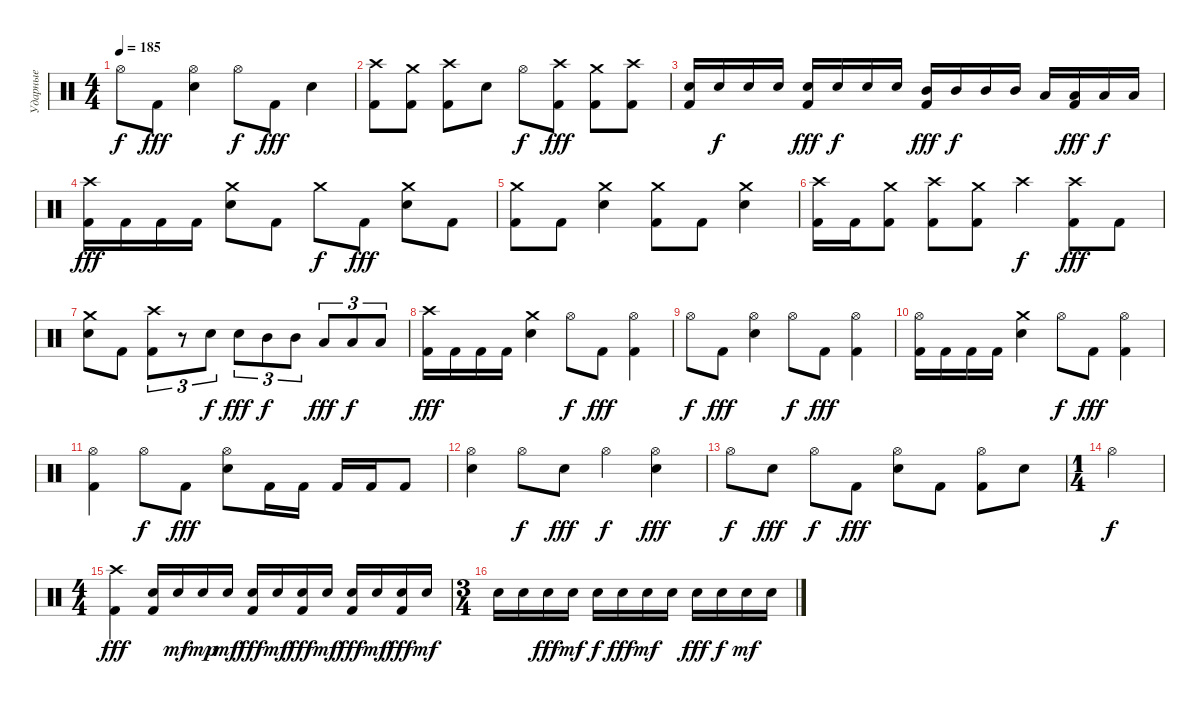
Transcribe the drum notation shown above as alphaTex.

\track ("Ударные" "Ударные") {instrument percussion}
\staff {score}
\articulation defaults
\ts (4 4)
\tempo 185
\clef neutral
\ks c "Hi-Hat (open)".8{dy f} "Kick (hit) 2".8{dy fff}
("Hi-Hat (open)" "Electric Snare (hit)").4 "Hi-Hat (open)".8{dy f} "Kick (hit) 2".8{dy fff} "Electric Snare (hit)".4 |
("Crash high (hit)" "Kick (hit) 2").8 ("Crash medium (hit)" "Kick (hit) 2").8 ("Crash high (hit)" "Kick (hit) 2").8 "Electric Snare (hit)".8 "Hi-Hat (open)".8{dy f} ("Crash high (hit)" "Kick (hit) 2").8{dy fff} ("Crash medium (hit)" "Kick (hit) 2").8 ("Crash high (hit)" "Kick (hit) 2").8 |
("Electric Snare (hit)" "Kick (hit) 2").16 "Electric Snare (hit)".16{dy f} "Electric Snare (hit)".16 "Electric Snare (hit)".16 ("Electric Snare (hit)" "Kick (hit) 2").16{dy fff} "Electric Snare (hit)".16{dy f} "Electric Snare (hit)".16 "Electric Snare (hit)".16 ("Mid Tom (hit)" "Kick (hit) 2").16{dy fff} "Mid Tom (hit)".16{dy f} "Mid Tom (hit)".16 "Mid Tom (hit)".16 "Low Floor Tom (hit)".16 ("Low Floor Tom (hit)" "Kick (hit) 2").16{dy fff} "Low Floor Tom (hit)".16{dy f} "Low Floor Tom (hit)".16 |
("Crash high (hit)" "Kick (hit) 2").16{dy fff} "Kick (hit) 2".16 "Kick (hit) 2".16 "Kick (hit) 2".16 ("Crash medium (hit)" "Electric Snare (hit)").8 "Kick (hit) 2".8 "Crash medium (hit)".8{dy f} "Kick (hit) 2".8{dy fff} ("Crash medium (hit)" "Electric Snare (hit)").8 "Kick (hit) 2".8 |
("Crash medium (hit)" "Kick (hit) 2").8 "Kick (hit) 2".8 ("Crash medium (hit)" "Electric Snare (hit)").4 ("Crash medium (hit)" "Kick (hit) 2").8 "Kick (hit) 2".8 ("Crash medium (hit)" "Electric Snare (hit)").4 |
("Crash high (hit)" "Kick (hit) 2").16 "Kick (hit) 2".16 ("Crash medium (hit)" "Kick (hit) 2").8 ("Crash high (hit)" "Kick (hit) 2").8 ("Crash medium (hit)" "Kick (hit) 2").8 "Crash high (hit)".4{dy f} ("Crash high (hit)" "Kick (hit) 2").8{dy fff} "Kick (hit) 2".8 |
("Crash medium (hit)" "Electric Snare (hit)").8 "Kick (hit) 2".8 ("Crash high (hit)" "Kick (hit) 2").8{tu (3 2)} r.8{tu (3 2)} "Electric Snare (hit)".8{tu (3 2) dy f} "Electric Snare (hit)".8{tu (3 2) dy fff} "Mid Tom (hit)".8{tu (3 2) dy f} "Mid Tom (hit)".8{tu (3 2)} "Low Tom (hit)".8{tu (3 2) dy fff} "Low Tom (hit)".8{tu (3 2) dy f} "Low Floor Tom (hit)".8{tu (3 2)} |
("Crash high (hit)" "Kick (hit) 2").16{dy fff} "Kick (hit) 2".16 "Kick (hit) 2".16 "Kick (hit) 2".16 ("Crash medium (hit)" "Electric Snare (hit)").4 "Hi-Hat (open)".8{dy f} "Kick (hit) 2".8{dy fff} ("Hi-Hat (open)" "Kick (hit) 2").4 |
"Hi-Hat (open)".8{dy f} "Kick (hit) 2".8{dy fff} ("Hi-Hat (open)" "Electric Snare (hit)").4 "Hi-Hat (open)".8{dy f} "Kick (hit) 2".8{dy fff} ("Hi-Hat (open)" "Kick (hit) 2").4 |
("Hi-Hat (open)" "Kick (hit) 2").16 "Kick (hit) 2".16 "Kick (hit) 2".16 "Kick (hit) 2".16 ("Crash medium (hit)" "Electric Snare (hit)").4 "Hi-Hat (open)".8{dy f} "Kick (hit) 2".8{dy fff} ("Hi-Hat (open)" "Kick (hit) 2").4 |
("Hi-Hat (open)" "Kick (hit) 2").4 "Hi-Hat (open)".8{dy f} "Kick (hit) 2".8{dy fff} ("Hi-Hat (open)" "Electric Snare (hit)").8 "Kick (hit) 2".16 "Kick (hit) 2".16 "Kick (hit) 2".16 "Kick (hit) 2".16 "Kick (hit) 2".8 |
("Hi-Hat (open)" "Electric Snare (hit)").4 "Hi-Hat (open)".8{dy f} "Electric Snare (hit)".8{dy fff} "Hi-Hat (open)".4{dy f} ("Hi-Hat (open)" "Electric Snare (hit)").4{dy fff} |
"Hi-Hat (open)".8{dy f} "Electric Snare (hit)".8{dy fff} "Hi-Hat (open)".8{dy f} "Kick (hit) 2".8{dy fff} ("Hi-Hat (open)" "Electric Snare (hit)").8 "Kick (hit) 2".8 ("Hi-Hat (open)" "Kick (hit) 2").8 "Electric Snare (hit)".8 |
\ts (1 4)
"Hi-Hat (open)".4{dy f} |
\ts (4 4)
("Crash high (hit)" "Kick (hit) 2").4{dy fff} ("Electric Snare (hit)" "Kick (hit) 2").16 "Electric Snare (hit)".16{dy mf} "Electric Snare (hit)".16{dy mp} "Electric Snare (hit)".16{dy mf} ("Electric Snare (hit)" "Kick (hit) 2").16{dy fff} "Electric Snare (hit)".16{dy mf} ("Electric Snare (hit)" "Kick (hit) 2").16{dy fff} "Electric Snare (hit)".16{dy mf} ("Electric Snare (hit)" "Kick (hit) 2").16{dy fff} "Electric Snare (hit)".16{dy mf} ("Electric Snare (hit)" "Kick (hit) 2").16{dy fff} "Electric Snare (hit)".16{dy mf} |
\ts (3 4)
"Electric Snare (hit)".16 "Electric Snare (hit)".16 "Electric Snare (hit)".16{dy fff} "Electric Snare (hit)".16{dy mf} "Electric Snare (hit)".16{dy f} "Electric Snare (hit)".16{dy fff} "Electric Snare (hit)".16{dy mf} "Electric Snare (hit)".16 "Electric Snare (hit)".16{dy fff} "Electric Snare (hit)".16{dy f} "Electric Snare (hit)".16{dy mf} "Electric Snare (hit)".16
